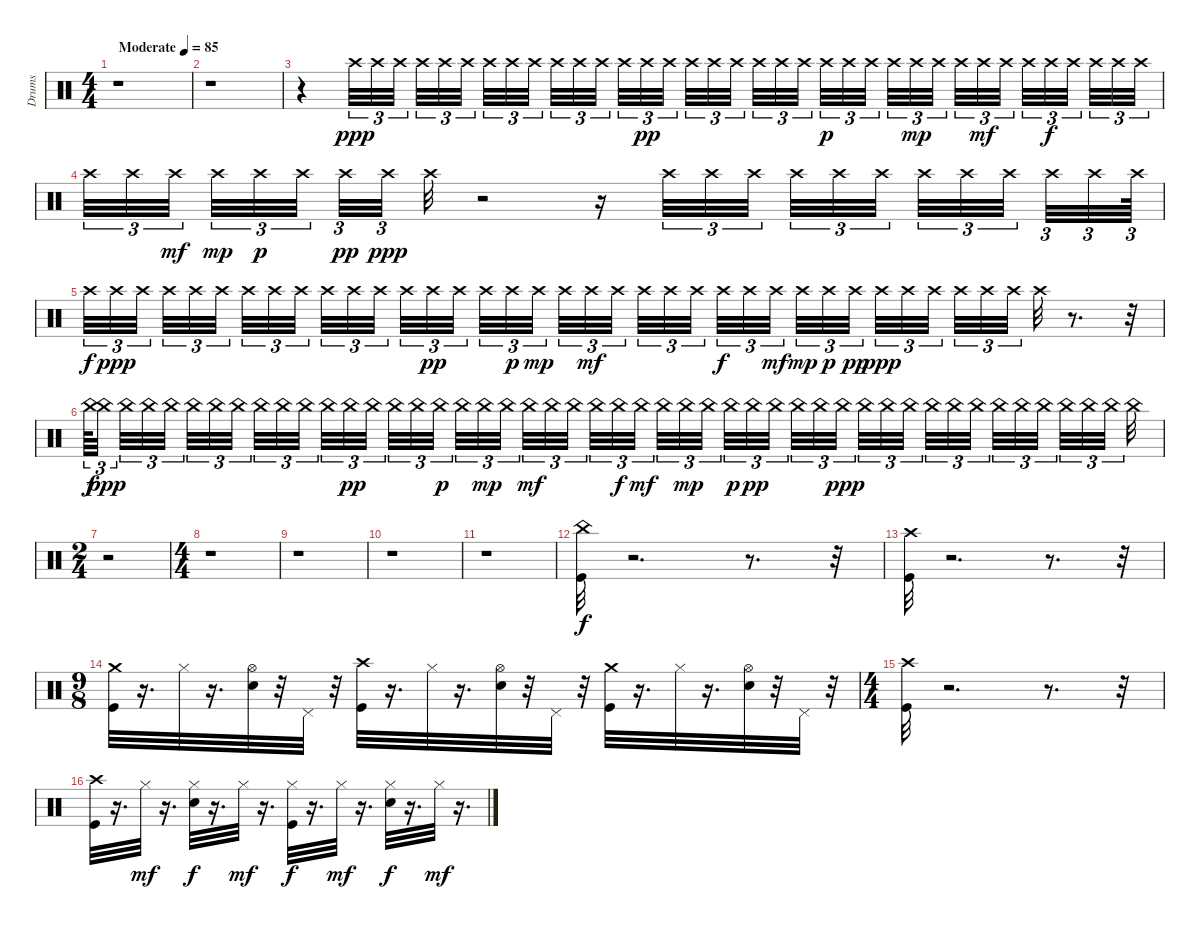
\track ("Drums" "Drums") {instrument percussion}
\staff {score}
\articulation defaults
\ts (4 4)
\tempo (85 "Moderate")
\clef neutral
\ks c
r.1{dy ppp} |
r.1 |
r.4 "Crash high (hit)".32{tu (3 2)} "Crash high (hit)".32{tu (3 2)} "Crash high (hit)".32{tu (3 2) beam splitsecondary} "Crash high (hit)".32{tu (3 2)} "Crash high (hit)".32{tu (3 2)} "Crash high (hit)".32{tu (3 2) beam splitsecondary} "Crash high (hit)".32{tu (3 2)} "Crash high (hit)".32{tu (3 2)} "Crash high (hit)".32{tu (3 2) beam splitsecondary} "Crash high (hit)".32{tu (3 2)} "Crash high (hit)".32{tu (3 2)} "Crash high (hit)".32{tu (3 2)} "Crash high (hit)".32{tu (3 2)} "Crash high (hit)".32{tu (3 2) dy pp} "Crash high (hit)".32{tu (3 2) beam splitsecondary} "Crash high (hit)".32{tu (3 2)} "Crash high (hit)".32{tu (3 2)} "Crash high (hit)".32{tu (3 2) beam splitsecondary} "Crash high (hit)".32{tu (3 2)} "Crash high (hit)".32{tu (3 2)} "Crash high (hit)".32{tu (3 2) beam splitsecondary} "Crash high (hit)".32{tu (3 2) dy p} "Crash high (hit)".32{tu (3 2)} "Crash high (hit)".32{tu (3 2)} "Crash high (hit)".32{tu (3 2)} "Crash high (hit)".32{tu (3 2) dy mp} "Crash high (hit)".32{tu (3 2) beam splitsecondary} "Crash high (hit)".32{tu (3 2)} "Crash high (hit)".32{tu (3 2) dy mf} "Crash high (hit)".32{tu (3 2) beam splitsecondary} "Crash high (hit)".32{tu (3 2)} "Crash high (hit)".32{tu (3 2) dy f} "Crash high (hit)".32{tu (3 2) beam splitsecondary} "Crash high (hit)".32{tu (3 2)} "Crash high (hit)".32{tu (3 2)} "Crash high (hit)".32{tu (3 2)} |
"Crash high (hit)".32{tu (3 2)} "Crash high (hit)".32{tu (3 2)} "Crash high (hit)".32{tu (3 2) dy mf beam splitsecondary} "Crash high (hit)".32{tu (3 2) dy mp} "Crash high (hit)".32{tu (3 2) dy p} "Crash high (hit)".32{tu (3 2) beam splitsecondary} "Crash high (hit)".32{tu (3 2) dy pp} "Crash high (hit)".32{tu (3 2) dy ppp beam splitsecondary} "Crash high (hit)".32 r.2 r.16 "Crash high (hit)".32{tu (3 2)} "Crash high (hit)".32{tu (3 2)} "Crash high (hit)".32{tu (3 2) beam splitsecondary} "Crash high (hit)".32{tu (3 2)} "Crash high (hit)".32{tu (3 2)} "Crash high (hit)".32{tu (3 2) beam splitsecondary} "Crash high (hit)".32{tu (3 2)} "Crash high (hit)".32{tu (3 2)} "Crash high (hit)".32{tu (3 2) beam splitsecondary} "Crash high (hit)".32{tu (3 2)} "Crash high (hit)".32{tu (3 2)} "Crash high (hit)".64{tu (3 2)} |
"Crash high (hit)".32{tu (3 2) dy f} "Crash high (hit)".32{tu (3 2) dy ppp} "Crash high (hit)".32{tu (3 2) beam splitsecondary} "Crash high (hit)".32{tu (3 2)} "Crash high (hit)".32{tu (3 2)} "Crash high (hit)".32{tu (3 2) beam splitsecondary} "Crash high (hit)".32{tu (3 2)} "Crash high (hit)".32{tu (3 2)} "Crash high (hit)".32{tu (3 2) beam splitsecondary} "Crash high (hit)".32{tu (3 2)} "Crash high (hit)".32{tu (3 2)} "Crash high (hit)".32{tu (3 2)} "Crash high (hit)".32{tu (3 2)} "Crash high (hit)".32{tu (3 2) dy pp} "Crash high (hit)".32{tu (3 2) beam splitsecondary} "Crash high (hit)".32{tu (3 2)} "Crash high (hit)".32{tu (3 2) dy p} "Crash high (hit)".32{tu (3 2) dy mp beam splitsecondary} "Crash high (hit)".32{tu (3 2)} "Crash high (hit)".32{tu (3 2) dy mf} "Crash high (hit)".32{tu (3 2) beam splitsecondary} "Crash high (hit)".32{tu (3 2)} "Crash high (hit)".32{tu (3 2)} "Crash high (hit)".32{tu (3 2)} "Crash high (hit)".32{tu (3 2) dy f} "Crash high (hit)".32{tu (3 2)} "Crash high (hit)".32{tu (3 2) dy mf beam splitsecondary} "Crash high (hit)".32{tu (3 2) dy mp} "Crash high (hit)".32{tu (3 2) dy p} "Crash high (hit)".32{tu (3 2) dy pp beam splitsecondary} "Crash high (hit)".32{tu (3 2) dy ppp} "Crash high (hit)".32{tu (3 2)} "Crash high (hit)".32{tu (3 2) beam splitsecondary} "Crash high (hit)".32{tu (3 2)} "Crash high (hit)".32{tu (3 2)} "Crash high (hit)".32{tu (3 2)} "Crash high (hit)".32 r.8{d} r.32 |
"China (hit)".64{tu (3 2) dy f} "China (hit)".32{tu (3 2) dy ppp beam splitsecondary} "China (hit)".32{tu (3 2)} "China (hit)".32{tu (3 2)} "China (hit)".32{tu (3 2) beam splitsecondary} "China (hit)".32{tu (3 2)} "China (hit)".32{tu (3 2)} "China (hit)".32{tu (3 2) beam splitsecondary} "China (hit)".32{tu (3 2)} "China (hit)".32{tu (3 2)} "China (hit)".32{tu (3 2) beam splitsecondary} "China (hit)".32{tu (3 2)} "China (hit)".32{tu (3 2) dy pp} "China (hit)".32{tu (3 2) beam splitsecondary} "China (hit)".32{tu (3 2)} "China (hit)".32{tu (3 2)} "China (hit)".32{tu (3 2) dy p beam splitsecondary} "China (hit)".32{tu (3 2)} "China (hit)".32{tu (3 2) dy mp} "China (hit)".32{tu (3 2) beam splitsecondary} "China (hit)".32{tu (3 2) dy mf} "China (hit)".32{tu (3 2)} "China (hit)".32{tu (3 2) beam splitsecondary} "China (hit)".32{tu (3 2)} "China (hit)".32{tu (3 2) dy f} "China (hit)".32{tu (3 2) dy mf beam splitsecondary} "China (hit)".32{tu (3 2)} "China (hit)".32{tu (3 2) dy mp} "China (hit)".32{tu (3 2) beam splitsecondary} "China (hit)".32{tu (3 2) dy p} "China (hit)".32{tu (3 2) dy pp} "China (hit)".32{tu (3 2) beam splitsecondary} "China (hit)".32{tu (3 2)} "China (hit)".32{tu (3 2)} "China (hit)".32{tu (3 2) dy ppp beam splitsecondary} "China (hit)".32{tu (3 2)} "China (hit)".32{tu (3 2)} "China (hit)".32{tu (3 2) beam splitsecondary} "China (hit)".32{tu (3 2)} "China (hit)".32{tu (3 2)} "China (hit)".32{tu (3 2) beam splitsecondary} "China (hit)".32{tu (3 2)} "China (hit)".32{tu (3 2)} "China (hit)".32{tu (3 2) beam splitsecondary} "China (hit)".32{tu (3 2)} "China (hit)".32{tu (3 2)} "China (hit)".32{tu (3 2) beam splitsecondary} "China (hit)".32 |
\ts (2 4)
r.2 |
\ts (4 4)
r.1 |
r.1 |
r.1 |
r.1 |
("Kick (hit)" "China (hit)").32{dy f} r.2{d} r.8{d} r.32 |
("Crash high (hit)" "Kick (hit)").32 r.2{d} r.8{d} r.32 |
\ts (9 8)
("Kick (hit)" "Crash medium (hit)").32 r.16{d} "Hi-Hat (closed)".32 r.16{d} ("Hi-Hat (open)" "Snare (hit) 2").32 r.32 "Pedal Hi-Hat (hit)".32 r.32 ("Crash high (hit)" "Kick (hit)").32 r.16{d} "Hi-Hat (closed)".32 r.16{d} ("Hi-Hat (open)" "Snare (hit) 2").32 r.32 "Pedal Hi-Hat (hit)".32 r.32 ("Crash medium (hit)" "Kick (hit)").32 r.16{d} "Hi-Hat (closed)".32 r.16{d} ("Hi-Hat (open)" "Snare (hit) 2").32 r.32 "Pedal Hi-Hat (hit)".32 r.32 |
\ts (4 4)
("Crash high (hit)" "Kick (hit)").32 r.2{d} r.8{d} r.32 |
("Kick (hit)" "Crash high (hit)").32 r.16{d} "Hi-Hat (closed)".32{dy mf} r.16{d} ("Hi-Hat (closed)" "Snare (hit) 2").32{dy f} r.16{d} "Hi-Hat (closed)".32{dy mf} r.16{d} ("Hi-Hat (closed)" "Kick (hit)").32{dy f} r.16{d} "Hi-Hat (closed)".32{dy mf} r.16{d} ("Hi-Hat (closed)" "Snare (hit) 2").32{dy f} r.16{d} "Hi-Hat (closed)".32{dy mf} r.16{d}
